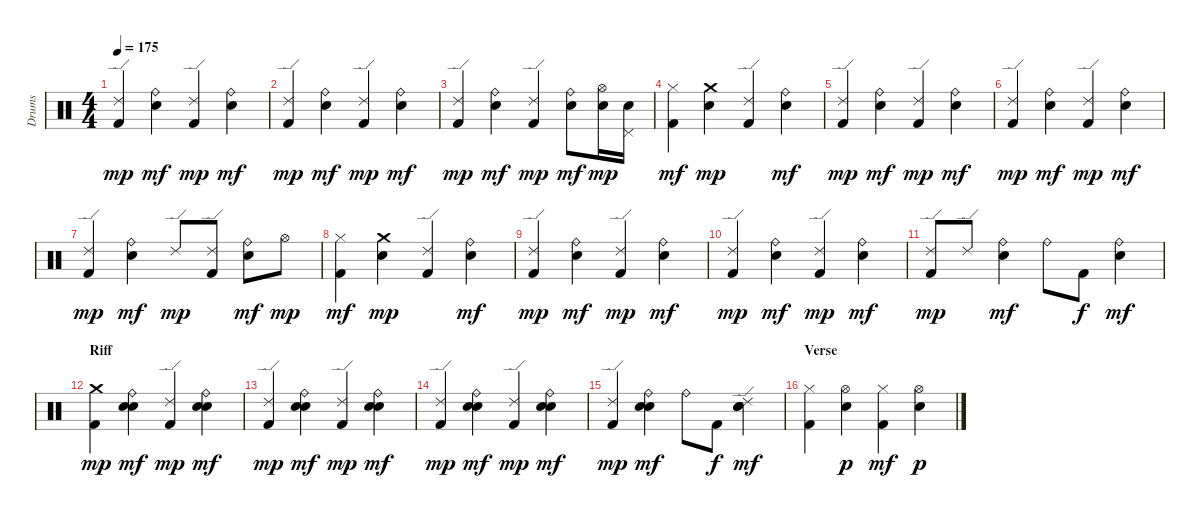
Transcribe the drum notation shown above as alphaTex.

\track ("Drums" "Drums") {instrument percussion}
\staff {score}
\articulation defaults
\ts (4 4)
\tempo 175
\clef neutral
\ks c
("Ride (edge) 2" "Kick (hit) 2").4{dy mp} ("Ride (bell)" "Electric Snare (hit)").4{dy mf} ("Ride (edge) 2" "Kick (hit) 2").4{dy mp} ("Ride (bell)" "Electric Snare (hit)").4{dy mf} |
("Ride (edge) 2" "Kick (hit) 2").4{dy mp} ("Ride (bell)" "Electric Snare (hit)").4{dy mf} ("Ride (edge) 2" "Kick (hit) 2").4{dy mp} ("Ride (bell)" "Electric Snare (hit)").4{dy mf} |
("Ride (edge) 2" "Kick (hit) 2").4{dy mp} ("Ride (bell)" "Electric Snare (hit)").4{dy mf} ("Ride (edge) 2" "Kick (hit) 2").4{dy mp} ("Ride (bell)" "Electric Snare (hit)").8{dy mf} ("Hi-Hat (open)" "Electric Snare (hit)").16{dy mp} ("Pedal Hi-Hat (hit)" "Electric Snare (hit)").16 |
("Hi-Hat (closed)" "Kick (hit) 2").4{dy mf} ("Crash medium (hit)" "Electric Snare (hit)").4{dy mp} ("Ride (edge) 2" "Kick (hit) 2").4 ("Ride (bell)" "Electric Snare (hit)").4{dy mf} |
("Ride (edge) 2" "Kick (hit) 2").4{dy mp} ("Ride (bell)" "Electric Snare (hit)").4{dy mf} ("Ride (edge) 2" "Kick (hit) 2").4{dy mp} ("Ride (bell)" "Electric Snare (hit)").4{dy mf} |
("Ride (edge) 2" "Kick (hit) 2").4{dy mp} ("Ride (bell)" "Electric Snare (hit)").4{dy mf} ("Ride (edge) 2" "Kick (hit) 2").4{dy mp} ("Ride (bell)" "Electric Snare (hit)").4{dy mf} |
("Ride (edge) 2" "Kick (hit) 2").4{dy mp} ("Ride (bell)" "Electric Snare (hit)").4{dy mf} "Ride (edge) 2".8{dy mp} ("Ride (edge) 2" "Kick (hit) 2").8 ("Ride (bell)" "Electric Snare (hit)").8{dy mf} "Hi-Hat (open)".8{dy mp} |
("Hi-Hat (closed)" "Kick (hit) 2").4{dy mf} ("Crash medium (hit)" "Electric Snare (hit)").4{dy mp} ("Ride (edge) 2" "Kick (hit) 2").4 ("Ride (bell)" "Electric Snare (hit)").4{dy mf} |
("Ride (edge) 2" "Kick (hit) 2").4{dy mp} ("Ride (bell)" "Electric Snare (hit)").4{dy mf} ("Ride (edge) 2" "Kick (hit) 2").4{dy mp} ("Ride (bell)" "Electric Snare (hit)").4{dy mf} |
("Ride (edge) 2" "Kick (hit) 2").4{dy mp} ("Ride (bell)" "Electric Snare (hit)").4{dy mf} ("Ride (edge) 2" "Kick (hit) 2").4{dy mp} ("Ride (bell)" "Electric Snare (hit)").4{dy mf} |
("Ride (edge) 2" "Kick (hit) 2").8{dy mp} "Ride (edge) 2".8 ("Ride (bell)" "Electric Snare (hit)").4{dy mf} "Ride (bell)".8 "Kick (hit) 2".8{dy f} ("Ride (bell)" "Electric Snare (hit)").4{dy mf} |
\section ("" "Riff")
("Crash medium (hit)" "Kick (hit) 2").4{dy mp} ("Ride (bell)" "Electric Snare (hit)" "Hand Clap (hit)").4{dy mf} ("Ride (edge) 2" "Kick (hit) 2").4{dy mp} ("Ride (bell)" "Electric Snare (hit)" "Hand Clap (hit)").4{dy mf} |
("Ride (edge) 2" "Kick (hit) 2").4{dy mp} ("Ride (bell)" "Electric Snare (hit)" "Hand Clap (hit)").4{dy mf} ("Ride (edge) 2" "Kick (hit) 2").4{dy mp} ("Ride (bell)" "Electric Snare (hit)" "Hand Clap (hit)").4{dy mf} |
("Ride (edge) 2" "Kick (hit) 2").4{dy mp} ("Ride (bell)" "Electric Snare (hit)" "Hand Clap (hit)").4{dy mf} ("Ride (edge) 2" "Kick (hit) 2").4{dy mp} ("Ride (bell)" "Electric Snare (hit)" "Hand Clap (hit)").4{dy mf} |
("Ride (edge) 2" "Kick (hit) 2").4{dy mp} ("Ride (bell)" "Electric Snare (hit)" "Hand Clap (hit)").4{dy mf} "Ride (bell)".8 "Kick (hit) 2".8{dy f} ("Ride (edge) 2" "Electric Snare (hit)" "Hand Clap (hit)").4{dy mf} |
\section ("" "Verse")
("Hi-Hat (closed)" "Kick (hit) 2").4 ("Hi-Hat (open)" "Electric Snare (hit)").4{dy p} ("Hi-Hat (closed)" "Kick (hit) 2").4{dy mf} ("Hi-Hat (open)" "Electric Snare (hit)").4{dy p}
